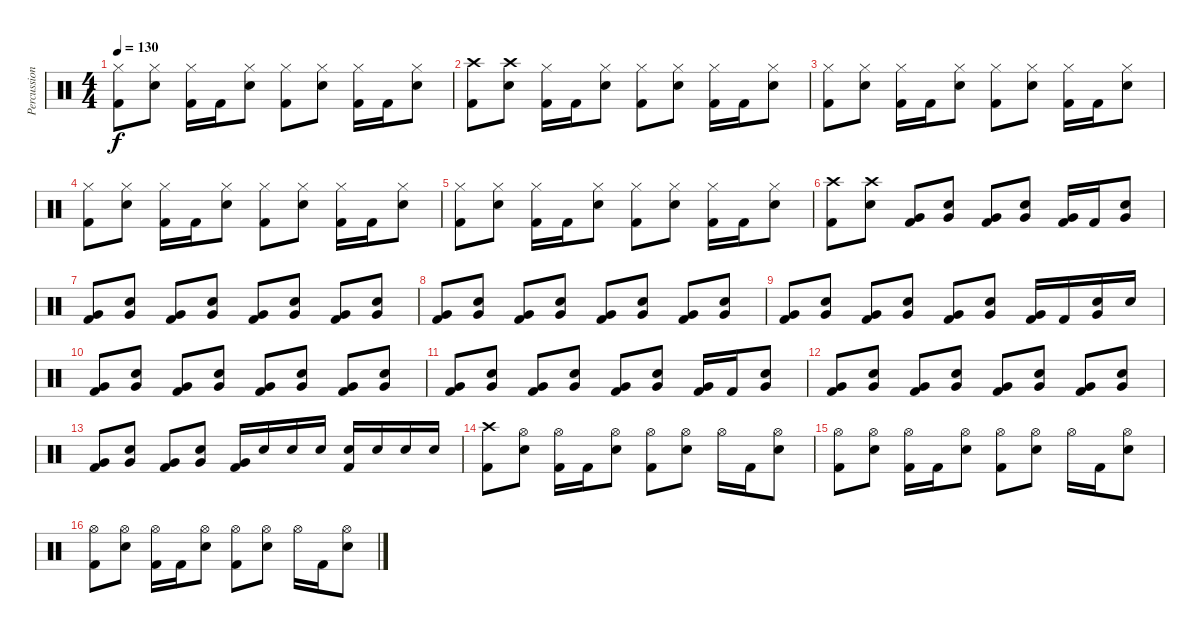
\track ("Percussion" "Percussion") {instrument percussion}
\staff {score}
\articulation defaults
\ts (4 4)
\tempo 130
\clef neutral
\ks c
("Hi-Hat (closed)" "Kick (hit) 2").8{dy f} ("Hi-Hat (closed)" "Electric Snare (hit)").8 ("Hi-Hat (closed)" "Kick (hit) 2").16 "Kick (hit) 2".16 ("Hi-Hat (closed)" "Electric Snare (hit)").8 ("Hi-Hat (closed)" "Kick (hit) 2").8 ("Hi-Hat (closed)" "Electric Snare (hit)").8 ("Hi-Hat (closed)" "Kick (hit) 2").16 "Kick (hit) 2".16 ("Hi-Hat (closed)" "Electric Snare (hit)").8 |
("Crash high (hit)" "Kick (hit) 2").8 ("Crash high (hit)" "Electric Snare (hit)").8 ("Hi-Hat (closed)" "Kick (hit) 2").16 "Kick (hit) 2".16 ("Hi-Hat (closed)" "Electric Snare (hit)").8 ("Hi-Hat (closed)" "Kick (hit) 2").8 ("Hi-Hat (closed)" "Electric Snare (hit)").8 ("Hi-Hat (closed)" "Kick (hit) 2").16 "Kick (hit) 2".16 ("Hi-Hat (closed)" "Electric Snare (hit)").8 |
("Hi-Hat (closed)" "Kick (hit) 2").8 ("Hi-Hat (closed)" "Electric Snare (hit)").8 ("Hi-Hat (closed)" "Kick (hit) 2").16 "Kick (hit) 2".16 ("Hi-Hat (closed)" "Electric Snare (hit)").8 ("Hi-Hat (closed)" "Kick (hit) 2").8 ("Hi-Hat (closed)" "Electric Snare (hit)").8 ("Hi-Hat (closed)" "Kick (hit) 2").16 "Kick (hit) 2".16 ("Hi-Hat (closed)" "Electric Snare (hit)").8 |
("Hi-Hat (closed)" "Kick (hit) 2").8 ("Hi-Hat (closed)" "Electric Snare (hit)").8 ("Hi-Hat (closed)" "Kick (hit) 2").16 "Kick (hit) 2".16 ("Hi-Hat (closed)" "Electric Snare (hit)").8 ("Hi-Hat (closed)" "Kick (hit) 2").8 ("Hi-Hat (closed)" "Electric Snare (hit)").8 ("Hi-Hat (closed)" "Kick (hit) 2").16 "Kick (hit) 2".16 ("Hi-Hat (closed)" "Electric Snare (hit)").8 |
("Hi-Hat (closed)" "Kick (hit) 2").8 ("Hi-Hat (closed)" "Electric Snare (hit)").8 ("Hi-Hat (closed)" "Kick (hit) 2").16 "Kick (hit) 2".16 ("Hi-Hat (closed)" "Electric Snare (hit)").8 ("Hi-Hat (closed)" "Kick (hit) 2").8 ("Hi-Hat (closed)" "Electric Snare (hit)").8 ("Hi-Hat (closed)" "Kick (hit) 2").16 "Kick (hit) 2".16 ("Hi-Hat (closed)" "Electric Snare (hit)").8 |
("Crash high (hit)" "Kick (hit) 2").8 ("Crash high (hit)" "Electric Snare (hit)").8 ("Very Low Tom (hit)" "Kick (hit) 2").8 ("Very Low Tom (hit)" "Electric Snare (hit)").8 ("Very Low Tom (hit)" "Kick (hit) 2").8 ("Very Low Tom (hit)" "Electric Snare (hit)").8 ("Very Low Tom (hit)" "Kick (hit) 2").16 "Kick (hit) 2".16 ("Very Low Tom (hit)" "Electric Snare (hit)").8 |
("Very Low Tom (hit)" "Kick (hit) 2").8 ("Very Low Tom (hit)" "Electric Snare (hit)").8 ("Very Low Tom (hit)" "Kick (hit) 2").8 ("Very Low Tom (hit)" "Electric Snare (hit)").8 ("Very Low Tom (hit)" "Kick (hit) 2").8 ("Very Low Tom (hit)" "Electric Snare (hit)").8 ("Very Low Tom (hit)" "Kick (hit) 2").8 ("Very Low Tom (hit)" "Electric Snare (hit)").8 |
("Very Low Tom (hit)" "Kick (hit) 2").8 ("Very Low Tom (hit)" "Electric Snare (hit)").8 ("Very Low Tom (hit)" "Kick (hit) 2").8 ("Very Low Tom (hit)" "Electric Snare (hit)").8 ("Very Low Tom (hit)" "Kick (hit) 2").8 ("Very Low Tom (hit)" "Electric Snare (hit)").8 ("Very Low Tom (hit)" "Kick (hit) 2").8 ("Very Low Tom (hit)" "Electric Snare (hit)").8 |
("Very Low Tom (hit)" "Kick (hit) 2").8 ("Very Low Tom (hit)" "Electric Snare (hit)").8 ("Very Low Tom (hit)" "Kick (hit) 2").8 ("Very Low Tom (hit)" "Electric Snare (hit)").8 ("Very Low Tom (hit)" "Kick (hit) 2").8 ("Very Low Tom (hit)" "Electric Snare (hit)").8 ("Very Low Tom (hit)" "Kick (hit) 2").16 "Kick (hit) 2".16 ("Very Low Tom (hit)" "Electric Snare (hit)").16 "Electric Snare (hit)".16 |
("Very Low Tom (hit)" "Kick (hit) 2").8 ("Very Low Tom (hit)" "Electric Snare (hit)").8 ("Very Low Tom (hit)" "Kick (hit) 2").8 ("Very Low Tom (hit)" "Electric Snare (hit)").8 ("Very Low Tom (hit)" "Kick (hit) 2").8 ("Very Low Tom (hit)" "Electric Snare (hit)").8 ("Very Low Tom (hit)" "Kick (hit) 2").8 ("Very Low Tom (hit)" "Electric Snare (hit)").8 |
("Very Low Tom (hit)" "Kick (hit) 2").8 ("Very Low Tom (hit)" "Electric Snare (hit)").8 ("Very Low Tom (hit)" "Kick (hit) 2").8 ("Very Low Tom (hit)" "Electric Snare (hit)").8 ("Very Low Tom (hit)" "Kick (hit) 2").8 ("Very Low Tom (hit)" "Electric Snare (hit)").8 ("Very Low Tom (hit)" "Kick (hit) 2").16 "Kick (hit) 2".16 ("Very Low Tom (hit)" "Electric Snare (hit)").8 |
("Very Low Tom (hit)" "Kick (hit) 2").8 ("Very Low Tom (hit)" "Electric Snare (hit)").8 ("Very Low Tom (hit)" "Kick (hit) 2").8 ("Very Low Tom (hit)" "Electric Snare (hit)").8 ("Very Low Tom (hit)" "Kick (hit) 2").8 ("Very Low Tom (hit)" "Electric Snare (hit)").8 ("Very Low Tom (hit)" "Kick (hit) 2").8 ("Very Low Tom (hit)" "Electric Snare (hit)").8 |
("Very Low Tom (hit)" "Kick (hit) 2").8 ("Very Low Tom (hit)" "Electric Snare (hit)").8 ("Very Low Tom (hit)" "Kick (hit) 2").8 ("Very Low Tom (hit)" "Electric Snare (hit)").8 ("Very Low Tom (hit)" "Kick (hit) 2").16 "Electric Snare (hit)".16 "Electric Snare (hit)".16 "Electric Snare (hit)".16 ("Electric Snare (hit)" "Kick (hit) 2").16 "Electric Snare (hit)".16 "Electric Snare (hit)".16 "Electric Snare (hit)".16 |
("Crash high (hit)" "Kick (hit) 2").8 ("Hi-Hat (open)" "Electric Snare (hit)").8 ("Hi-Hat (open)" "Kick (hit) 2").16 "Kick (hit) 2".16 ("Hi-Hat (open)" "Electric Snare (hit)").8 ("Hi-Hat (open)" "Kick (hit) 2").8 ("Hi-Hat (open)" "Electric Snare (hit)").8 "Hi-Hat (open)".16 "Kick (hit) 2".16 ("Hi-Hat (open)" "Electric Snare (hit)").8 |
("Hi-Hat (open)" "Kick (hit) 2").8 ("Hi-Hat (open)" "Electric Snare (hit)").8 ("Hi-Hat (open)" "Kick (hit) 2").16 "Kick (hit) 2".16 ("Hi-Hat (open)" "Electric Snare (hit)").8 ("Hi-Hat (open)" "Kick (hit) 2").8 ("Hi-Hat (open)" "Electric Snare (hit)").8 "Hi-Hat (open)".16 "Kick (hit) 2".16 ("Hi-Hat (open)" "Electric Snare (hit)").8 |
("Hi-Hat (open)" "Kick (hit) 2").8 ("Hi-Hat (open)" "Electric Snare (hit)").8 ("Hi-Hat (open)" "Kick (hit) 2").16 "Kick (hit) 2".16 ("Hi-Hat (open)" "Electric Snare (hit)").8 ("Hi-Hat (open)" "Kick (hit) 2").8 ("Hi-Hat (open)" "Electric Snare (hit)").8 "Hi-Hat (open)".16 "Kick (hit) 2".16 ("Hi-Hat (open)" "Electric Snare (hit)").8
